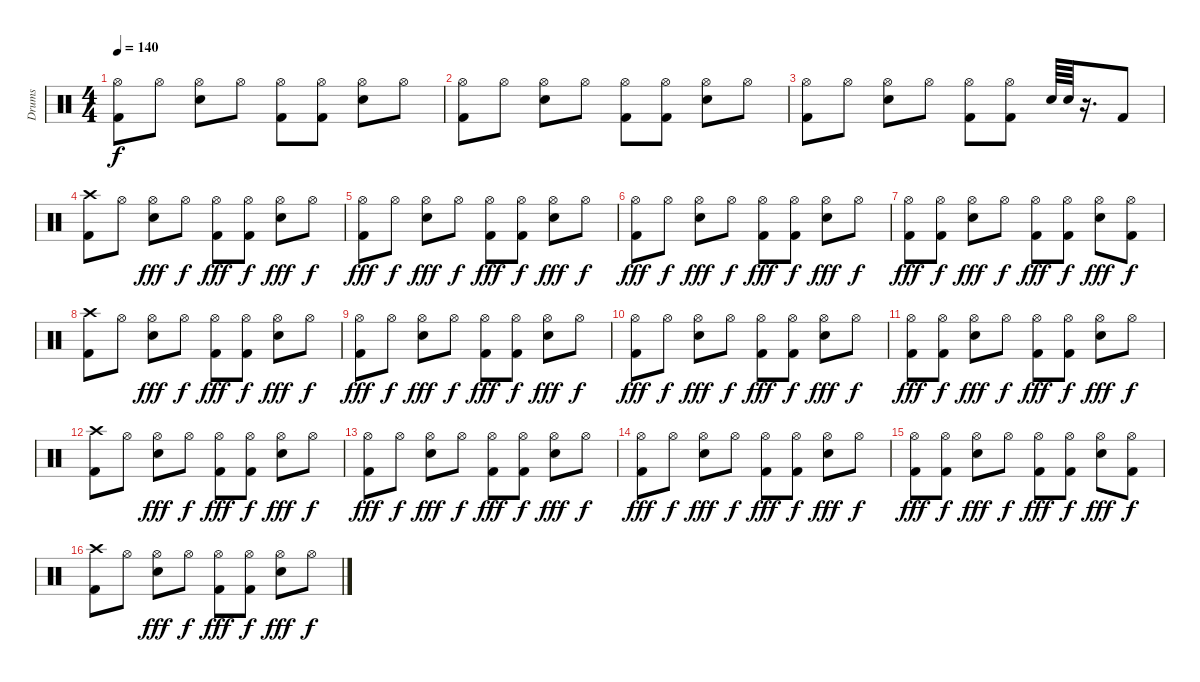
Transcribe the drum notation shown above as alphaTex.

\track ("Drums" "Drums") {instrument percussion}
\staff {score}
\articulation defaults
\ts (4 4)
\tempo 140
\clef neutral
\ks c
("Hi-Hat (open)" "Kick (hit) 2").8{dy f} "Hi-Hat (open)".8 ("Hi-Hat (open)" "Snare (hit) 2").8 "Hi-Hat (open)".8 ("Hi-Hat (open)" "Kick (hit) 2").8 ("Hi-Hat (open)" "Kick (hit) 2").8 ("Hi-Hat (open)" "Snare (hit) 2").8 "Hi-Hat (open)".8 |
("Hi-Hat (open)" "Kick (hit) 2").8 "Hi-Hat (open)".8 ("Hi-Hat (open)" "Snare (hit) 2").8 "Hi-Hat (open)".8 ("Hi-Hat (open)" "Kick (hit) 2").8 ("Hi-Hat (open)" "Kick (hit) 2").8 ("Hi-Hat (open)" "Snare (hit) 2").8 "Hi-Hat (open)".8 |
("Hi-Hat (open)" "Kick (hit) 2").8 "Hi-Hat (open)".8 ("Hi-Hat (open)" "Snare (hit) 2").8 "Hi-Hat (open)".8 ("Hi-Hat (open)" "Kick (hit) 2").8 ("Hi-Hat (open)" "Kick (hit) 2").8 "Snare (hit) 2".64 "Snare (hit) 2".64 r.16{d} "Kick (hit) 2".8 |
("Crash high (hit)" "Kick (hit) 2").8 "Hi-Hat (open)".8 ("Hi-Hat (open)" "Snare (hit) 2").8{dy fff} "Hi-Hat (open)".8{dy f} ("Hi-Hat (open)" "Kick (hit) 2").8{dy fff} ("Hi-Hat (open)" "Kick (hit) 2").8{dy f} ("Hi-Hat (open)" "Snare (hit) 2").8{dy fff} "Hi-Hat (open)".8{dy f} |
("Hi-Hat (open)" "Kick (hit) 2").8{dy fff} "Hi-Hat (open)".8{dy f} ("Hi-Hat (open)" "Snare (hit) 2").8{dy fff} "Hi-Hat (open)".8{dy f} ("Hi-Hat (open)" "Kick (hit) 2").8{dy fff} ("Hi-Hat (open)" "Kick (hit) 2").8{dy f} ("Hi-Hat (open)" "Snare (hit) 2").8{dy fff} "Hi-Hat (open)".8{dy f} |
("Hi-Hat (open)" "Kick (hit) 2").8{dy fff} "Hi-Hat (open)".8{dy f} ("Hi-Hat (open)" "Snare (hit) 2").8{dy fff} "Hi-Hat (open)".8{dy f} ("Hi-Hat (open)" "Kick (hit) 2").8{dy fff} ("Hi-Hat (open)" "Kick (hit) 2").8{dy f} ("Hi-Hat (open)" "Snare (hit) 2").8{dy fff} "Hi-Hat (open)".8{dy f} |
("Hi-Hat (open)" "Kick (hit) 2").8{dy fff} ("Hi-Hat (open)" "Kick (hit) 2").8{dy f} ("Hi-Hat (open)" "Snare (hit) 2").8{dy fff} "Hi-Hat (open)".8{dy f} ("Hi-Hat (open)" "Kick (hit) 2").8{dy fff} ("Hi-Hat (open)" "Kick (hit) 2").8{dy f} ("Hi-Hat (open)" "Snare (hit) 2").8{dy fff} ("Hi-Hat (open)" "Kick (hit) 2").8{dy f} |
("Crash high (hit)" "Kick (hit) 2").8 "Hi-Hat (open)".8 ("Hi-Hat (open)" "Snare (hit) 2").8{dy fff} "Hi-Hat (open)".8{dy f} ("Hi-Hat (open)" "Kick (hit) 2").8{dy fff} ("Hi-Hat (open)" "Kick (hit) 2").8{dy f} ("Hi-Hat (open)" "Snare (hit) 2").8{dy fff} "Hi-Hat (open)".8{dy f} |
("Hi-Hat (open)" "Kick (hit) 2").8{dy fff} "Hi-Hat (open)".8{dy f} ("Hi-Hat (open)" "Snare (hit) 2").8{dy fff} "Hi-Hat (open)".8{dy f} ("Hi-Hat (open)" "Kick (hit) 2").8{dy fff} ("Hi-Hat (open)" "Kick (hit) 2").8{dy f} ("Hi-Hat (open)" "Snare (hit) 2").8{dy fff} "Hi-Hat (open)".8{dy f} |
("Hi-Hat (open)" "Kick (hit) 2").8{dy fff} "Hi-Hat (open)".8{dy f} ("Hi-Hat (open)" "Snare (hit) 2").8{dy fff} "Hi-Hat (open)".8{dy f} ("Hi-Hat (open)" "Kick (hit) 2").8{dy fff} ("Hi-Hat (open)" "Kick (hit) 2").8{dy f} ("Hi-Hat (open)" "Snare (hit) 2").8{dy fff} "Hi-Hat (open)".8{dy f} |
("Hi-Hat (open)" "Kick (hit) 2").8{dy fff} ("Hi-Hat (open)" "Kick (hit) 2").8{dy f} ("Hi-Hat (open)" "Snare (hit) 2").8{dy fff} "Hi-Hat (open)".8{dy f} ("Hi-Hat (open)" "Kick (hit) 2").8{dy fff} ("Hi-Hat (open)" "Kick (hit) 2").8{dy f} ("Hi-Hat (open)" "Snare (hit) 2").8{dy fff} "Hi-Hat (open)".8{dy f} |
("Crash high (hit)" "Kick (hit) 2").8 "Hi-Hat (open)".8 ("Hi-Hat (open)" "Snare (hit) 2").8{dy fff} "Hi-Hat (open)".8{dy f} ("Hi-Hat (open)" "Kick (hit) 2").8{dy fff} ("Hi-Hat (open)" "Kick (hit) 2").8{dy f} ("Hi-Hat (open)" "Snare (hit) 2").8{dy fff} "Hi-Hat (open)".8{dy f} |
("Hi-Hat (open)" "Kick (hit) 2").8{dy fff} "Hi-Hat (open)".8{dy f} ("Hi-Hat (open)" "Snare (hit) 2").8{dy fff} "Hi-Hat (open)".8{dy f} ("Hi-Hat (open)" "Kick (hit) 2").8{dy fff} ("Hi-Hat (open)" "Kick (hit) 2").8{dy f} ("Hi-Hat (open)" "Snare (hit) 2").8{dy fff} "Hi-Hat (open)".8{dy f} |
("Hi-Hat (open)" "Kick (hit) 2").8{dy fff} "Hi-Hat (open)".8{dy f} ("Hi-Hat (open)" "Snare (hit) 2").8{dy fff} "Hi-Hat (open)".8{dy f} ("Hi-Hat (open)" "Kick (hit) 2").8{dy fff} ("Hi-Hat (open)" "Kick (hit) 2").8{dy f} ("Hi-Hat (open)" "Snare (hit) 2").8{dy fff} "Hi-Hat (open)".8{dy f} |
("Hi-Hat (open)" "Kick (hit) 2").8{dy fff} ("Hi-Hat (open)" "Kick (hit) 2").8{dy f} ("Hi-Hat (open)" "Snare (hit) 2").8{dy fff} "Hi-Hat (open)".8{dy f} ("Hi-Hat (open)" "Kick (hit) 2").8{dy fff} ("Hi-Hat (open)" "Kick (hit) 2").8{dy f} ("Hi-Hat (open)" "Snare (hit) 2").8{dy fff} ("Hi-Hat (open)" "Kick (hit) 2").8{dy f} |
("Crash high (hit)" "Kick (hit) 2").8 "Hi-Hat (open)".8 ("Hi-Hat (open)" "Snare (hit) 2").8{dy fff} "Hi-Hat (open)".8{dy f} ("Hi-Hat (open)" "Kick (hit) 2").8{dy fff} ("Hi-Hat (open)" "Kick (hit) 2").8{dy f} ("Hi-Hat (open)" "Snare (hit) 2").8{dy fff} "Hi-Hat (open)".8{dy f}
